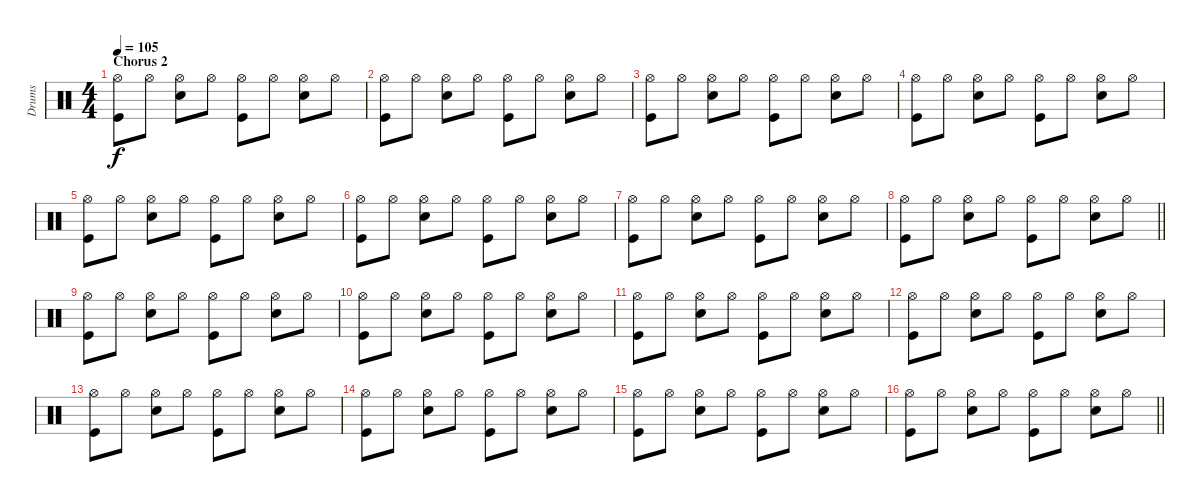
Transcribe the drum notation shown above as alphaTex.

\track ("Drums" "Drums") {instrument percussion}
\staff {score}
\articulation defaults
\ts (4 4)
\section ("" "Chorus 2")
\tempo 105
\clef neutral
\ks c
("Kick (hit)" "Hi-Hat (open)").8{dy f} "Hi-Hat (open)".8 ("Electric Snare (hit)" "Hi-Hat (open)").8 "Hi-Hat (open)".8 ("Kick (hit)" "Hi-Hat (open)").8 "Hi-Hat (open)".8 ("Electric Snare (hit)" "Hi-Hat (open)").8 "Hi-Hat (open)".8 |
("Kick (hit)" "Hi-Hat (open)").8 "Hi-Hat (open)".8 ("Electric Snare (hit)" "Hi-Hat (open)").8 "Hi-Hat (open)".8 ("Kick (hit)" "Hi-Hat (open)").8 "Hi-Hat (open)".8 ("Electric Snare (hit)" "Hi-Hat (open)").8 "Hi-Hat (open)".8 |
("Kick (hit)" "Hi-Hat (open)").8 "Hi-Hat (open)".8 ("Electric Snare (hit)" "Hi-Hat (open)").8 "Hi-Hat (open)".8 ("Kick (hit)" "Hi-Hat (open)").8 "Hi-Hat (open)".8 ("Electric Snare (hit)" "Hi-Hat (open)").8 "Hi-Hat (open)".8 |
("Kick (hit)" "Hi-Hat (open)").8 "Hi-Hat (open)".8 ("Electric Snare (hit)" "Hi-Hat (open)").8 "Hi-Hat (open)".8 ("Kick (hit)" "Hi-Hat (open)").8 "Hi-Hat (open)".8 ("Electric Snare (hit)" "Hi-Hat (open)").8 "Hi-Hat (open)".8 |
("Kick (hit)" "Hi-Hat (open)").8 "Hi-Hat (open)".8 ("Electric Snare (hit)" "Hi-Hat (open)").8 "Hi-Hat (open)".8 ("Kick (hit)" "Hi-Hat (open)").8 "Hi-Hat (open)".8 ("Electric Snare (hit)" "Hi-Hat (open)").8 "Hi-Hat (open)".8 |
("Kick (hit)" "Hi-Hat (open)").8 "Hi-Hat (open)".8 ("Electric Snare (hit)" "Hi-Hat (open)").8 "Hi-Hat (open)".8 ("Kick (hit)" "Hi-Hat (open)").8 "Hi-Hat (open)".8 ("Electric Snare (hit)" "Hi-Hat (open)").8 "Hi-Hat (open)".8 |
("Kick (hit)" "Hi-Hat (open)").8 "Hi-Hat (open)".8 ("Electric Snare (hit)" "Hi-Hat (open)").8 "Hi-Hat (open)".8 ("Kick (hit)" "Hi-Hat (open)").8 "Hi-Hat (open)".8 ("Electric Snare (hit)" "Hi-Hat (open)").8 "Hi-Hat (open)".8 |
\barLineRight lightlight
("Kick (hit)" "Hi-Hat (open)").8 "Hi-Hat (open)".8 ("Electric Snare (hit)" "Hi-Hat (open)").8 "Hi-Hat (open)".8 ("Kick (hit)" "Hi-Hat (open)").8 "Hi-Hat (open)".8 ("Electric Snare (hit)" "Hi-Hat (open)").8 "Hi-Hat (open)".8 |
("Kick (hit)" "Hi-Hat (open)").8 "Hi-Hat (open)".8 ("Electric Snare (hit)" "Hi-Hat (open)").8 "Hi-Hat (open)".8 ("Kick (hit)" "Hi-Hat (open)").8 "Hi-Hat (open)".8 ("Electric Snare (hit)" "Hi-Hat (open)").8 "Hi-Hat (open)".8 |
("Kick (hit)" "Hi-Hat (open)").8 "Hi-Hat (open)".8 ("Electric Snare (hit)" "Hi-Hat (open)").8 "Hi-Hat (open)".8 ("Kick (hit)" "Hi-Hat (open)").8 "Hi-Hat (open)".8 ("Electric Snare (hit)" "Hi-Hat (open)").8 "Hi-Hat (open)".8 |
("Kick (hit)" "Hi-Hat (open)").8 "Hi-Hat (open)".8 ("Electric Snare (hit)" "Hi-Hat (open)").8 "Hi-Hat (open)".8 ("Kick (hit)" "Hi-Hat (open)").8 "Hi-Hat (open)".8 ("Electric Snare (hit)" "Hi-Hat (open)").8 "Hi-Hat (open)".8 |
("Kick (hit)" "Hi-Hat (open)").8 "Hi-Hat (open)".8 ("Electric Snare (hit)" "Hi-Hat (open)").8 "Hi-Hat (open)".8 ("Kick (hit)" "Hi-Hat (open)").8 "Hi-Hat (open)".8 ("Electric Snare (hit)" "Hi-Hat (open)").8 "Hi-Hat (open)".8 |
("Kick (hit)" "Hi-Hat (open)").8 "Hi-Hat (open)".8 ("Electric Snare (hit)" "Hi-Hat (open)").8 "Hi-Hat (open)".8 ("Kick (hit)" "Hi-Hat (open)").8 "Hi-Hat (open)".8 ("Electric Snare (hit)" "Hi-Hat (open)").8 "Hi-Hat (open)".8 |
("Kick (hit)" "Hi-Hat (open)").8 "Hi-Hat (open)".8 ("Electric Snare (hit)" "Hi-Hat (open)").8 "Hi-Hat (open)".8 ("Kick (hit)" "Hi-Hat (open)").8 "Hi-Hat (open)".8 ("Electric Snare (hit)" "Hi-Hat (open)").8 "Hi-Hat (open)".8 |
("Kick (hit)" "Hi-Hat (open)").8 "Hi-Hat (open)".8 ("Electric Snare (hit)" "Hi-Hat (open)").8 "Hi-Hat (open)".8 ("Kick (hit)" "Hi-Hat (open)").8 "Hi-Hat (open)".8 ("Electric Snare (hit)" "Hi-Hat (open)").8 "Hi-Hat (open)".8 |
\barLineRight lightlight
("Kick (hit)" "Hi-Hat (open)").8 "Hi-Hat (open)".8 ("Electric Snare (hit)" "Hi-Hat (open)").8 "Hi-Hat (open)".8 ("Kick (hit)" "Hi-Hat (open)").8 "Hi-Hat (open)".8 ("Electric Snare (hit)" "Hi-Hat (open)").8 "Hi-Hat (open)".8
